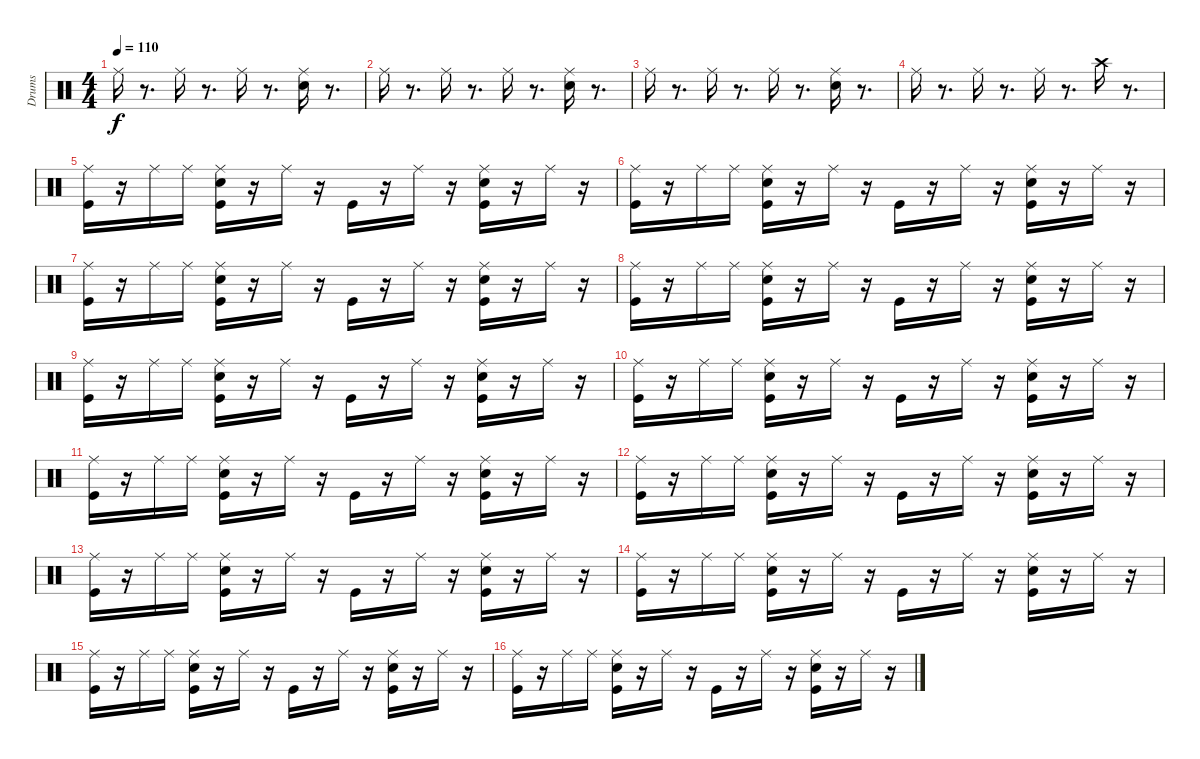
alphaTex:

\track ("Drums" "Drums") {instrument percussion}
\staff {score}
\articulation defaults
\ts (4 4)
\tempo 110
\clef neutral
\ks c "Ride (middle)".16{dy f}
r.8{d} "Ride (middle)".16 r.8{d} "Ride (middle)".16 r.8{d} ("Snare (hit) 2" "Ride (middle)").16 r.8{d} |
"Ride (middle)".16 r.8{d} "Ride (middle)".16 r.8{d} "Ride (middle)".16 r.8{d} ("Snare (hit) 2" "Ride (middle)").16 r.8{d} |
"Ride (middle)".16 r.8{d} "Ride (middle)".16 r.8{d} "Ride (middle)".16 r.8{d} ("Snare (hit) 2" "Ride (middle)").16 r.8{d} |
"Ride (middle)".16 r.8{d} "Ride (middle)".16 r.8{d} "Ride (middle)".16 r.8{d} "Crash high (hit)".16 r.8{d} |
("Kick (hit)" "Ride (middle)").16 r.16 "Ride (middle)".16 "Ride (middle)".16 ("Snare (hit) 2" "Ride (middle)" "Kick (hit)").16 r.16 "Ride (middle)".16 r.16 "Kick (hit)".16 r.16 "Ride (middle)".16 r.16 ("Snare (hit) 2" "Ride (middle)" "Kick (hit)").16 r.16 "Ride (middle)".16 r.16 |
("Kick (hit)" "Ride (middle)").16 r.16 "Ride (middle)".16 "Ride (middle)".16 ("Snare (hit) 2" "Ride (middle)" "Kick (hit)").16 r.16 "Ride (middle)".16 r.16 "Kick (hit)".16 r.16 "Ride (middle)".16 r.16 ("Snare (hit) 2" "Ride (middle)" "Kick (hit)").16 r.16 "Ride (middle)".16 r.16 |
("Kick (hit)" "Ride (middle)").16 r.16 "Ride (middle)".16 "Ride (middle)".16 ("Snare (hit) 2" "Ride (middle)" "Kick (hit)").16 r.16 "Ride (middle)".16 r.16 "Kick (hit)".16 r.16 "Ride (middle)".16 r.16 ("Snare (hit) 2" "Ride (middle)" "Kick (hit)").16 r.16 "Ride (middle)".16 r.16 |
("Kick (hit)" "Ride (middle)").16 r.16 "Ride (middle)".16 "Ride (middle)".16 ("Snare (hit) 2" "Ride (middle)" "Kick (hit)").16 r.16 "Ride (middle)".16 r.16 "Kick (hit)".16 r.16 "Ride (middle)".16 r.16 ("Snare (hit) 2" "Ride (middle)" "Kick (hit)").16 r.16 "Ride (middle)".16 r.16 |
("Kick (hit)" "Ride (middle)").16 r.16 "Ride (middle)".16 "Ride (middle)".16 ("Snare (hit) 2" "Ride (middle)" "Kick (hit)").16 r.16 "Ride (middle)".16 r.16 "Kick (hit)".16 r.16 "Ride (middle)".16 r.16 ("Snare (hit) 2" "Ride (middle)" "Kick (hit)").16 r.16 "Ride (middle)".16 r.16 |
("Kick (hit)" "Ride (middle)").16 r.16 "Ride (middle)".16 "Ride (middle)".16 ("Snare (hit) 2" "Ride (middle)" "Kick (hit)").16 r.16 "Ride (middle)".16 r.16 "Kick (hit)".16 r.16 "Ride (middle)".16 r.16 ("Snare (hit) 2" "Ride (middle)" "Kick (hit)").16 r.16 "Ride (middle)".16 r.16 |
("Kick (hit)" "Ride (middle)").16 r.16 "Ride (middle)".16 "Ride (middle)".16 ("Snare (hit) 2" "Ride (middle)" "Kick (hit)").16 r.16 "Ride (middle)".16 r.16 "Kick (hit)".16 r.16 "Ride (middle)".16 r.16 ("Snare (hit) 2" "Ride (middle)" "Kick (hit)").16 r.16 "Ride (middle)".16 r.16 |
("Kick (hit)" "Ride (middle)").16 r.16 "Ride (middle)".16 "Ride (middle)".16 ("Snare (hit) 2" "Ride (middle)" "Kick (hit)").16 r.16 "Ride (middle)".16 r.16 "Kick (hit)".16 r.16 "Ride (middle)".16 r.16 ("Snare (hit) 2" "Ride (middle)" "Kick (hit)").16 r.16 "Ride (middle)".16 r.16 |
("Kick (hit)" "Ride (middle)").16 r.16 "Ride (middle)".16 "Ride (middle)".16 ("Snare (hit) 2" "Ride (middle)" "Kick (hit)").16 r.16 "Ride (middle)".16 r.16 "Kick (hit)".16 r.16 "Ride (middle)".16 r.16 ("Snare (hit) 2" "Ride (middle)" "Kick (hit)").16 r.16 "Ride (middle)".16 r.16 |
("Kick (hit)" "Ride (middle)").16 r.16 "Ride (middle)".16 "Ride (middle)".16 ("Snare (hit) 2" "Ride (middle)" "Kick (hit)").16 r.16 "Ride (middle)".16 r.16 "Kick (hit)".16 r.16 "Ride (middle)".16 r.16 ("Snare (hit) 2" "Ride (middle)" "Kick (hit)").16 r.16 "Ride (middle)".16 r.16 |
("Kick (hit)" "Ride (middle)").16 r.16 "Ride (middle)".16 "Ride (middle)".16 ("Snare (hit) 2" "Ride (middle)" "Kick (hit)").16 r.16 "Ride (middle)".16 r.16 "Kick (hit)".16 r.16 "Ride (middle)".16 r.16 ("Snare (hit) 2" "Ride (middle)" "Kick (hit)").16 r.16 "Ride (middle)".16 r.16 |
("Kick (hit)" "Ride (middle)").16 r.16 "Ride (middle)".16 "Ride (middle)".16 ("Snare (hit) 2" "Ride (middle)" "Kick (hit)").16 r.16 "Ride (middle)".16 r.16 "Kick (hit)".16 r.16 "Ride (middle)".16 r.16 ("Snare (hit) 2" "Ride (middle)" "Kick (hit)").16 r.16 "Ride (middle)".16 r.16
